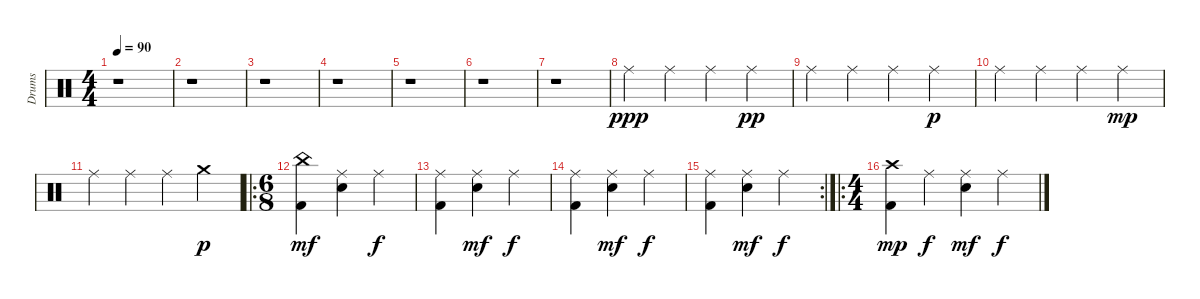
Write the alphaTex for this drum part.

\track ("Drums" "Drums") {instrument percussion}
\staff {score}
\articulation defaults
\ts (4 4)
\tempo 90
\clef neutral
\ks c
r.1{dy ppp} |
r.1 |
r.1 |
r.1 |
r.1 |
r.1 |
r.1 |
"Ride (middle)".4 "Ride (middle)".4 "Ride (middle)".4 "Ride (middle)".4{dy pp} |
"Ride (middle)".4 "Ride (middle)".4 "Ride (middle)".4 "Ride (middle)".4{dy p} |
"Ride (middle)".4 "Ride (middle)".4 "Ride (middle)".4 "Ride (middle)".4{dy mp} |
"Ride (middle)".4 "Ride (middle)".4 "Ride (middle)".4 "Crash medium (hit)".4{dy p} |
\ro
\ts (6 8)
("China (hit)" "Kick (hit) 2").4{dy mf} ("Ride (middle)" "Electric Snare (hit)").4 "Ride (middle)".4{dy f} |
("Ride (middle)" "Kick (hit) 2").4 ("Ride (middle)" "Electric Snare (hit)").4{dy mf} "Ride (middle)".4{dy f} |
("Ride (middle)" "Kick (hit) 2").4 ("Ride (middle)" "Electric Snare (hit)").4{dy mf} "Ride (middle)".4{dy f} |
\rc 2
("Ride (middle)" "Kick (hit) 2").4 ("Ride (middle)" "Electric Snare (hit)").4{dy mf} "Ride (middle)".4{dy f} |
\ro
\ts (4 4)
("Crash high (hit)" "Kick (hit) 2").4{dy mp} "Ride (middle)".4{dy f} ("Ride (middle)" "Electric Snare (hit)").4{dy mf} "Ride (middle)".4{dy f}
